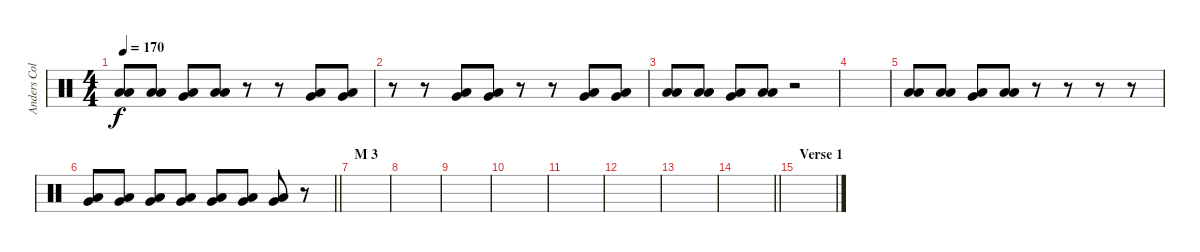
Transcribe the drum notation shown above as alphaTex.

\track ("Anders Colsefni" "Anders Col") {instrument percussion}
\staff {score}
\articulation defaults
\ts (4 4)
\tempo 170
\clef neutral
\ks c
("Low Floor Tom (hit)" "Low Floor Tom (hit)").8{dy f} ("Low Floor Tom (hit)" "Low Floor Tom (hit)").8 ("Very Low Tom (hit)" "Low Floor Tom (hit)").8 ("Low Floor Tom (hit)" "Low Floor Tom (hit)").8 r.8 r.8 ("Very Low Tom (hit)" "Low Floor Tom (hit)").8 ("Very Low Tom (hit)" "Low Floor Tom (hit)").8 |
r.8 r.8 ("Very Low Tom (hit)" "Low Floor Tom (hit)").8 ("Very Low Tom (hit)" "Low Floor Tom (hit)").8 r.8 r.8 ("Very Low Tom (hit)" "Low Floor Tom (hit)").8 ("Very Low Tom (hit)" "Low Floor Tom (hit)").8 |
("Low Floor Tom (hit)" "Low Floor Tom (hit)").8 ("Low Floor Tom (hit)" "Low Floor Tom (hit)").8 ("Very Low Tom (hit)" "Low Floor Tom (hit)").8 ("Low Floor Tom (hit)" "Low Floor Tom (hit)").8 r.2 |
|
("Low Floor Tom (hit)" "Low Floor Tom (hit)").8 ("Low Floor Tom (hit)" "Low Floor Tom (hit)").8 ("Very Low Tom (hit)" "Low Floor Tom (hit)").8 ("Low Floor Tom (hit)" "Low Floor Tom (hit)").8 r.8 r.8 r.8 r.8 |
\barLineRight lightlight
("Very Low Tom (hit)" "Low Floor Tom (hit)").8 ("Very Low Tom (hit)" "Low Floor Tom (hit)").8 ("Very Low Tom (hit)" "Low Floor Tom (hit)").8 ("Very Low Tom (hit)" "Low Floor Tom (hit)").8 ("Very Low Tom (hit)" "Low Floor Tom (hit)").8 ("Very Low Tom (hit)" "Low Floor Tom (hit)").8 ("Very Low Tom (hit)" "Low Floor Tom (hit)").8 r.8 |
\section ("" "M 3")
|
|
|
|
|
|
|
\barLineRight lightlight
|
\section ("" "Verse 1")
